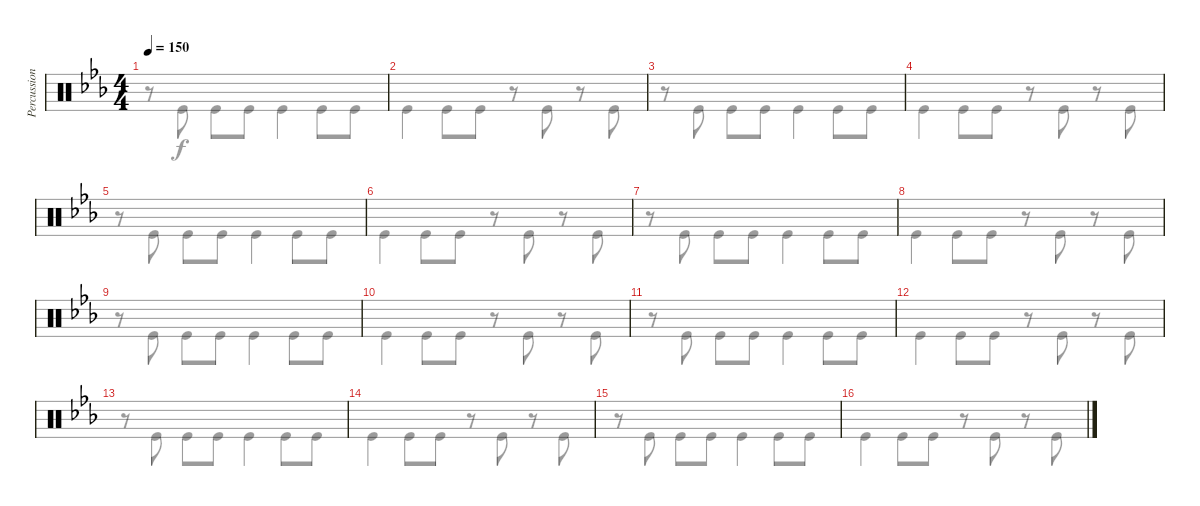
\track ("Percussion" "Percussion") {instrument percussion}
\staff {score}
\articulation defaults
\voice
\ts (4 4)
\tempo 150
\clef neutral
\ks cminor
|
|
|
|
|
|
|
|
|
|
|
|
|
|
|
\voice
\clef neutral
\ks cminor
r.8{dy f} "Kick (hit)".8 "Kick (hit)".8 "Kick (hit)".8 "Kick (hit)".4 "Kick (hit)".8 "Kick (hit)".8 |
"Kick (hit)".4 "Kick (hit)".8 "Kick (hit)".8 r.8 "Kick (hit)".8 r.8 "Kick (hit)".8 |
r.8 "Kick (hit)".8 "Kick (hit)".8 "Kick (hit)".8 "Kick (hit)".4 "Kick (hit)".8 "Kick (hit)".8 |
"Kick (hit)".4 "Kick (hit)".8 "Kick (hit)".8 r.8 "Kick (hit)".8 r.8 "Kick (hit)".8 |
r.8 "Kick (hit)".8 "Kick (hit)".8 "Kick (hit)".8 "Kick (hit)".4 "Kick (hit)".8 "Kick (hit)".8 |
"Kick (hit)".4 "Kick (hit)".8 "Kick (hit)".8 r.8 "Kick (hit)".8 r.8 "Kick (hit)".8 |
r.8 "Kick (hit)".8 "Kick (hit)".8 "Kick (hit)".8 "Kick (hit)".4 "Kick (hit)".8 "Kick (hit)".8 |
"Kick (hit)".4 "Kick (hit)".8 "Kick (hit)".8 r.8 "Kick (hit)".8 r.8 "Kick (hit)".8 |
r.8 "Kick (hit)".8 "Kick (hit)".8 "Kick (hit)".8 "Kick (hit)".4 "Kick (hit)".8 "Kick (hit)".8 |
"Kick (hit)".4 "Kick (hit)".8 "Kick (hit)".8 r.8 "Kick (hit)".8 r.8 "Kick (hit)".8 |
r.8 "Kick (hit)".8 "Kick (hit)".8 "Kick (hit)".8 "Kick (hit)".4 "Kick (hit)".8 "Kick (hit)".8 |
"Kick (hit)".4 "Kick (hit)".8 "Kick (hit)".8 r.8 "Kick (hit)".8 r.8 "Kick (hit)".8 |
r.8 "Kick (hit)".8 "Kick (hit)".8 "Kick (hit)".8 "Kick (hit)".4 "Kick (hit)".8 "Kick (hit)".8 |
"Kick (hit)".4 "Kick (hit)".8 "Kick (hit)".8 r.8 "Kick (hit)".8 r.8 "Kick (hit)".8 |
r.8 "Kick (hit)".8 "Kick (hit)".8 "Kick (hit)".8 "Kick (hit)".4 "Kick (hit)".8 "Kick (hit)".8 |
"Kick (hit)".4 "Kick (hit)".8 "Kick (hit)".8 r.8 "Kick (hit)".8 r.8 "Kick (hit)".8
